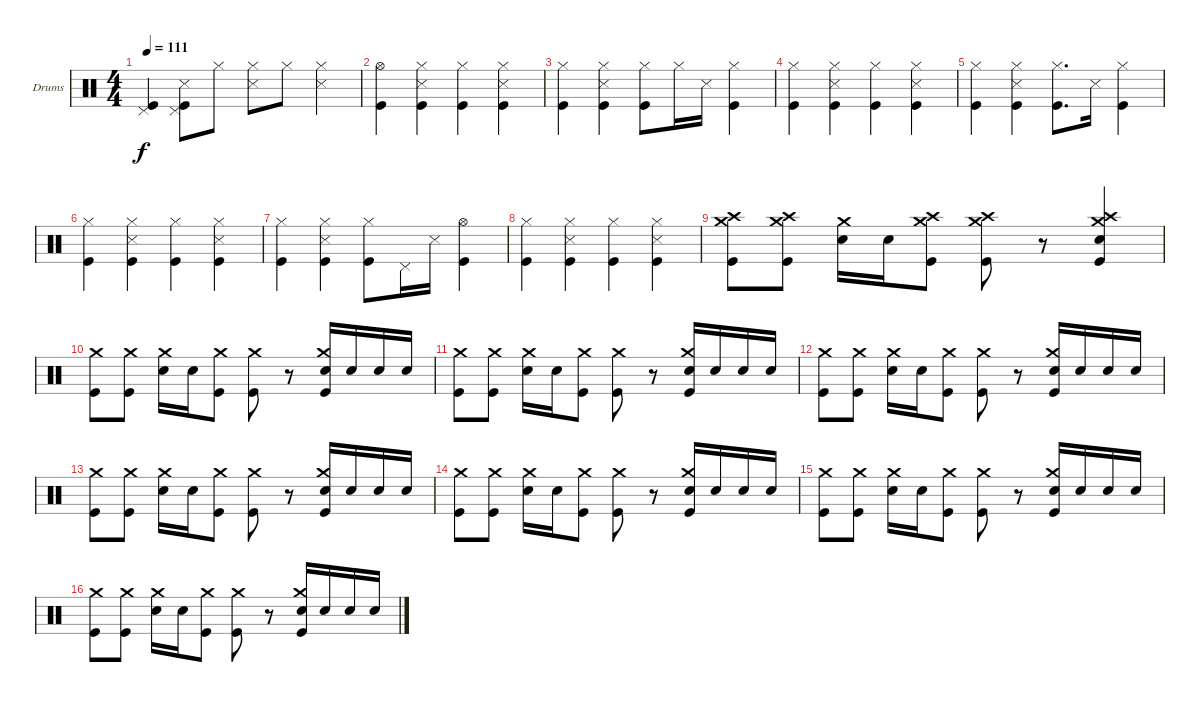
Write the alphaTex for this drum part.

\bracketExtendMode groupsimilarinstruments
\firstSystemTrackNameOrientation horizontal
\otherSystemsTrackNameOrientation horizontal
\track ("Drumkit" "Drums") {instrument percussion}
\staff {score}
\articulation defaults
\ts (4 4)
\tempo 111
\clef neutral
\ks c
("Pedal Hi-Hat (hit)" "Kick (hit)").4{dy f} ("Pedal Hi-Hat (hit)" "Snare (side stick) 3" "Kick (hit)").8 "Hi-Hat (closed)".8 ("Hi-Hat (closed)" "Snare (side stick) 3").8 "Hi-Hat (closed)".8 ("Hi-Hat (closed)" "Snare (side stick) 3").4 |
("Hi-Hat (open)" "Kick (hit)").4 ("Hi-Hat (closed)" "Snare (side stick) 3" "Kick (hit)").4 ("Hi-Hat (closed)" "Kick (hit)").4 ("Hi-Hat (closed)" "Snare (side stick) 3" "Kick (hit)").4 |
("Hi-Hat (closed)" "Kick (hit)").4 ("Hi-Hat (closed)" "Snare (side stick) 3" "Kick (hit)").4 ("Hi-Hat (closed)" "Kick (hit)").8 "Hi-Hat (closed)".16 "Snare (side stick) 3".16 ("Hi-Hat (closed)" "Kick (hit)").4 |
("Hi-Hat (closed)" "Kick (hit)").4 ("Hi-Hat (closed)" "Snare (side stick) 3" "Kick (hit)").4 ("Hi-Hat (closed)" "Kick (hit)").4 ("Hi-Hat (closed)" "Snare (side stick) 3" "Kick (hit)").4 |
("Hi-Hat (closed)" "Kick (hit)").4 ("Hi-Hat (closed)" "Snare (side stick) 3" "Kick (hit)").4 ("Hi-Hat (closed)" "Kick (hit)").8{d} "Snare (side stick) 3".16 ("Hi-Hat (closed)" "Kick (hit)").4 |
("Hi-Hat (closed)" "Kick (hit)").4 ("Hi-Hat (closed)" "Snare (side stick) 3" "Kick (hit)").4 ("Hi-Hat (closed)" "Kick (hit)").4 ("Hi-Hat (closed)" "Snare (side stick) 3" "Kick (hit)").4 |
("Hi-Hat (closed)" "Kick (hit)").4 ("Hi-Hat (closed)" "Snare (side stick) 3" "Kick (hit)").4 ("Hi-Hat (closed)" "Kick (hit)").8 "Pedal Hi-Hat (hit)".16 "Snare (side stick) 3".16 ("Hi-Hat (open)" "Kick (hit)").4 |
("Hi-Hat (closed)" "Kick (hit)").4 ("Hi-Hat (closed)" "Snare (side stick) 3" "Kick (hit)").4 ("Hi-Hat (closed)" "Kick (hit)").4 ("Hi-Hat (closed)" "Snare (side stick) 3" "Kick (hit)").4 |
("Crash medium (hit)" "Crash high (hit)" "Kick (hit)").8 ("Crash medium (hit)" "Crash high (hit)" "Kick (hit)").8 ("Crash medium (hit)" "Snare (hit) 2").16 "Snare (hit) 2".16 ("Crash medium (hit)" "Crash high (hit)" "Kick (hit)").8 ("Crash medium (hit)" "Crash high (hit)" "Kick (hit)").8 r.8 ("Crash medium (hit)" "Crash high (hit)" "Snare (hit) 2" "Kick (hit)").4 |
("Crash medium (hit)" "Kick (hit)").8 ("Crash medium (hit)" "Kick (hit)").8 ("Crash medium (hit)" "Snare (hit) 2").16 "Snare (hit) 2".16 ("Crash medium (hit)" "Kick (hit)").8 ("Crash medium (hit)" "Kick (hit)").8 r.8 ("Crash medium (hit)" "Snare (hit) 2" "Kick (hit)").16 "Snare (hit) 2".16 "Snare (hit) 2".16 "Snare (hit) 2".16 |
("Crash medium (hit)" "Kick (hit)").8 ("Crash medium (hit)" "Kick (hit)").8 ("Crash medium (hit)" "Snare (hit) 2").16 "Snare (hit) 2".16 ("Crash medium (hit)" "Kick (hit)").8 ("Crash medium (hit)" "Kick (hit)").8 r.8 ("Crash medium (hit)" "Snare (hit) 2" "Kick (hit)").16 "Snare (hit) 2".16 "Snare (hit) 2".16 "Snare (hit) 2".16 |
("Crash medium (hit)" "Kick (hit)").8 ("Crash medium (hit)" "Kick (hit)").8 ("Crash medium (hit)" "Snare (hit) 2").16 "Snare (hit) 2".16 ("Crash medium (hit)" "Kick (hit)").8 ("Crash medium (hit)" "Kick (hit)").8 r.8 ("Crash medium (hit)" "Snare (hit) 2" "Kick (hit)").16 "Snare (hit) 2".16 "Snare (hit) 2".16 "Snare (hit) 2".16 |
("Crash medium (hit)" "Kick (hit)").8 ("Crash medium (hit)" "Kick (hit)").8 ("Crash medium (hit)" "Snare (hit) 2").16 "Snare (hit) 2".16 ("Crash medium (hit)" "Kick (hit)").8 ("Crash medium (hit)" "Kick (hit)").8 r.8 ("Crash medium (hit)" "Snare (hit) 2" "Kick (hit)").16 "Snare (hit) 2".16 "Snare (hit) 2".16 "Snare (hit) 2".16 |
("Crash medium (hit)" "Kick (hit)").8 ("Crash medium (hit)" "Kick (hit)").8 ("Crash medium (hit)" "Snare (hit) 2").16 "Snare (hit) 2".16 ("Crash medium (hit)" "Kick (hit)").8 ("Crash medium (hit)" "Kick (hit)").8 r.8 ("Crash medium (hit)" "Snare (hit) 2" "Kick (hit)").16 "Snare (hit) 2".16 "Snare (hit) 2".16 "Snare (hit) 2".16 |
("Crash medium (hit)" "Kick (hit)").8 ("Crash medium (hit)" "Kick (hit)").8 ("Crash medium (hit)" "Snare (hit) 2").16 "Snare (hit) 2".16 ("Crash medium (hit)" "Kick (hit)").8 ("Crash medium (hit)" "Kick (hit)").8 r.8 ("Crash medium (hit)" "Snare (hit) 2" "Kick (hit)").16 "Snare (hit) 2".16 "Snare (hit) 2".16 "Snare (hit) 2".16 |
("Crash medium (hit)" "Kick (hit)").8 ("Crash medium (hit)" "Kick (hit)").8 ("Crash medium (hit)" "Snare (hit) 2").16 "Snare (hit) 2".16 ("Crash medium (hit)" "Kick (hit)").8 ("Crash medium (hit)" "Kick (hit)").8 r.8 ("Crash medium (hit)" "Snare (hit) 2" "Kick (hit)").16 "Snare (hit) 2".16 "Snare (hit) 2".16 "Snare (hit) 2".16
